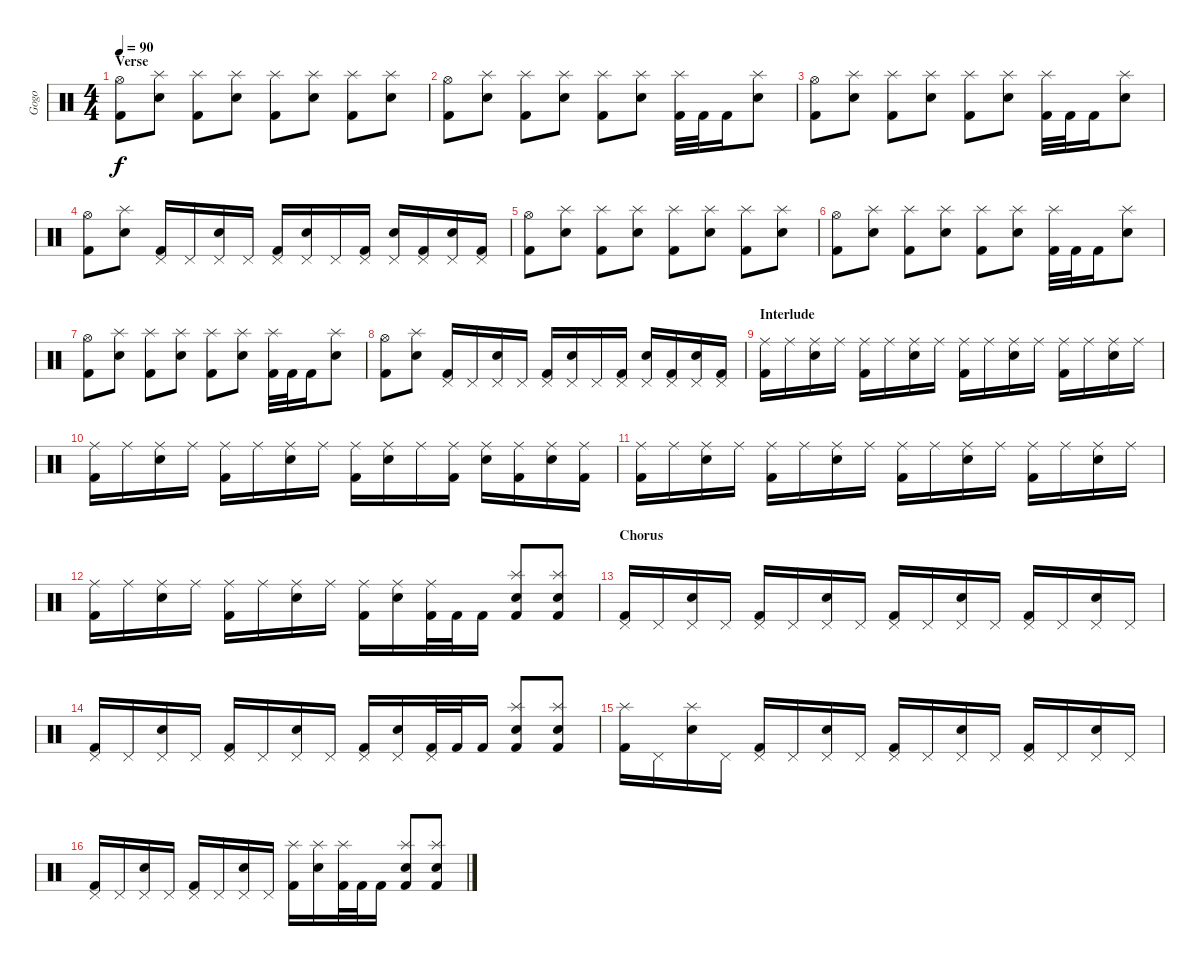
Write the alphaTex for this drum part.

\track ("Gogo" "Gogo") {instrument percussion}
\staff {score}
\articulation defaults
\ts (4 4)
\section ("" "Verse")
\tempo 90
\clef neutral
\ks c
("Hi-Hat (open)" "Kick (hit) 2").8{dy f} ("Splash (hit)" "Electric Snare (hit)").8 ("Splash (hit)" "Kick (hit) 2").8 ("Splash (hit)" "Electric Snare (hit)").8 ("Splash (hit)" "Kick (hit) 2").8 ("Splash (hit)" "Electric Snare (hit)").8 ("Splash (hit)" "Kick (hit) 2").8 ("Splash (hit)" "Electric Snare (hit)").8 |
("Hi-Hat (open)" "Kick (hit) 2").8 ("Splash (hit)" "Electric Snare (hit)").8 ("Splash (hit)" "Kick (hit) 2").8 ("Splash (hit)" "Electric Snare (hit)").8 ("Splash (hit)" "Kick (hit) 2").8 ("Splash (hit)" "Electric Snare (hit)").8 ("Splash (hit)" "Kick (hit) 2").32 "Kick (hit) 2".32 "Kick (hit) 2".16 ("Splash (hit)" "Electric Snare (hit)").8 |
("Hi-Hat (open)" "Kick (hit) 2").8 ("Splash (hit)" "Electric Snare (hit)").8 ("Splash (hit)" "Kick (hit) 2").8 ("Splash (hit)" "Electric Snare (hit)").8 ("Splash (hit)" "Kick (hit) 2").8 ("Splash (hit)" "Electric Snare (hit)").8 ("Splash (hit)" "Kick (hit) 2").32 "Kick (hit) 2".32 "Kick (hit) 2".16 ("Splash (hit)" "Electric Snare (hit)").8 |
("Hi-Hat (open)" "Kick (hit) 2").8 ("Splash (hit)" "Electric Snare (hit)").8 ("Pedal Hi-Hat (hit)" "Kick (hit) 2").16 "Pedal Hi-Hat (hit)".16 ("Pedal Hi-Hat (hit)" "Electric Snare (hit)").16 "Pedal Hi-Hat (hit)".16 ("Pedal Hi-Hat (hit)" "Kick (hit) 2").16 ("Pedal Hi-Hat (hit)" "Electric Snare (hit)").16 "Pedal Hi-Hat (hit)".16 ("Pedal Hi-Hat (hit)" "Kick (hit) 2").16 ("Pedal Hi-Hat (hit)" "Electric Snare (hit)").16 ("Pedal Hi-Hat (hit)" "Kick (hit) 2").16 ("Pedal Hi-Hat (hit)" "Electric Snare (hit)").16 ("Pedal Hi-Hat (hit)" "Kick (hit) 2").16 |
("Hi-Hat (open)" "Kick (hit) 2").8 ("Splash (hit)" "Electric Snare (hit)").8 ("Splash (hit)" "Kick (hit) 2").8 ("Splash (hit)" "Electric Snare (hit)").8 ("Splash (hit)" "Kick (hit) 2").8 ("Splash (hit)" "Electric Snare (hit)").8 ("Splash (hit)" "Kick (hit) 2").8 ("Splash (hit)" "Electric Snare (hit)").8 |
("Hi-Hat (open)" "Kick (hit) 2").8 ("Splash (hit)" "Electric Snare (hit)").8 ("Splash (hit)" "Kick (hit) 2").8 ("Splash (hit)" "Electric Snare (hit)").8 ("Splash (hit)" "Kick (hit) 2").8 ("Splash (hit)" "Electric Snare (hit)").8 ("Splash (hit)" "Kick (hit) 2").32 "Kick (hit) 2".32 "Kick (hit) 2".16 ("Splash (hit)" "Electric Snare (hit)").8 |
("Hi-Hat (open)" "Kick (hit) 2").8 ("Splash (hit)" "Electric Snare (hit)").8 ("Splash (hit)" "Kick (hit) 2").8 ("Splash (hit)" "Electric Snare (hit)").8 ("Splash (hit)" "Kick (hit) 2").8 ("Splash (hit)" "Electric Snare (hit)").8 ("Splash (hit)" "Kick (hit) 2").32 "Kick (hit) 2".32 "Kick (hit) 2".16 ("Splash (hit)" "Electric Snare (hit)").8 |
("Hi-Hat (open)" "Kick (hit) 2").8 ("Splash (hit)" "Electric Snare (hit)").8 ("Pedal Hi-Hat (hit)" "Kick (hit) 2").16 "Pedal Hi-Hat (hit)".16 ("Pedal Hi-Hat (hit)" "Electric Snare (hit)").16 "Pedal Hi-Hat (hit)".16 ("Pedal Hi-Hat (hit)" "Kick (hit) 2").16 ("Pedal Hi-Hat (hit)" "Electric Snare (hit)").16 "Pedal Hi-Hat (hit)".16 ("Pedal Hi-Hat (hit)" "Kick (hit) 2").16 ("Pedal Hi-Hat (hit)" "Electric Snare (hit)").16 ("Pedal Hi-Hat (hit)" "Kick (hit) 2").16 ("Pedal Hi-Hat (hit)" "Electric Snare (hit)").16 ("Pedal Hi-Hat (hit)" "Kick (hit) 2").16 |
\section ("" "Interlude")
("Ride (middle)" "Kick (hit) 2").16 "Ride (middle)".16 ("Ride (middle)" "Electric Snare (hit)").16 "Ride (middle)".16 ("Ride (middle)" "Kick (hit) 2").16 "Ride (middle)".16 ("Ride (middle)" "Electric Snare (hit)").16 "Ride (middle)".16 ("Ride (middle)" "Kick (hit) 2").16 "Ride (middle)".16 ("Ride (middle)" "Electric Snare (hit)").16 "Ride (middle)".16 ("Ride (middle)" "Kick (hit) 2").16 "Ride (middle)".16 ("Ride (middle)" "Electric Snare (hit)").16 "Ride (middle)".16 |
("Ride (middle)" "Kick (hit) 2").16 "Ride (middle)".16 ("Ride (middle)" "Electric Snare (hit)").16 "Ride (middle)".16 ("Ride (middle)" "Kick (hit) 2").16 "Ride (middle)".16 ("Ride (middle)" "Electric Snare (hit)").16 "Ride (middle)".16 ("Ride (middle)" "Kick (hit) 2").16 ("Ride (middle)" "Electric Snare (hit)").16 "Ride (middle)".16 ("Ride (middle)" "Kick (hit) 2").16 ("Ride (middle)" "Electric Snare (hit)").16 ("Ride (middle)" "Kick (hit) 2").16 ("Ride (middle)" "Electric Snare (hit)").16 ("Ride (middle)" "Kick (hit) 2").16 |
("Ride (middle)" "Kick (hit) 2").16 "Ride (middle)".16 ("Ride (middle)" "Electric Snare (hit)").16 "Ride (middle)".16 ("Ride (middle)" "Kick (hit) 2").16 "Ride (middle)".16 ("Ride (middle)" "Electric Snare (hit)").16 "Ride (middle)".16 ("Ride (middle)" "Kick (hit) 2").16 "Ride (middle)".16 ("Ride (middle)" "Electric Snare (hit)").16 "Ride (middle)".16 ("Ride (middle)" "Kick (hit) 2").16 "Ride (middle)".16 ("Ride (middle)" "Electric Snare (hit)").16 "Ride (middle)".16 |
("Ride (middle)" "Kick (hit) 2").16 "Ride (middle)".16 ("Ride (middle)" "Electric Snare (hit)").16 "Ride (middle)".16 ("Ride (middle)" "Kick (hit) 2").16 "Ride (middle)".16 ("Ride (middle)" "Electric Snare (hit)").16 "Ride (middle)".16 ("Ride (middle)" "Kick (hit) 2").16 ("Ride (middle)" "Electric Snare (hit)").16 ("Ride (middle)" "Kick (hit) 2").32 "Kick (hit) 2".32 "Kick (hit) 2".16 ("Splash (hit)" "Electric Snare (hit)" "Kick (hit) 2").8 ("Splash (hit)" "Electric Snare (hit)" "Kick (hit) 2").8 |
\section ("" "Chorus")
("Pedal Hi-Hat (hit)" "Kick (hit) 2").16 "Pedal Hi-Hat (hit)".16 ("Pedal Hi-Hat (hit)" "Electric Snare (hit)").16 "Pedal Hi-Hat (hit)".16 ("Pedal Hi-Hat (hit)" "Kick (hit) 2").16 "Pedal Hi-Hat (hit)".16 ("Pedal Hi-Hat (hit)" "Electric Snare (hit)").16 "Pedal Hi-Hat (hit)".16 ("Pedal Hi-Hat (hit)" "Kick (hit) 2").16 "Pedal Hi-Hat (hit)".16 ("Pedal Hi-Hat (hit)" "Electric Snare (hit)").16 "Pedal Hi-Hat (hit)".16 ("Pedal Hi-Hat (hit)" "Kick (hit) 2").16 "Pedal Hi-Hat (hit)".16 ("Pedal Hi-Hat (hit)" "Electric Snare (hit)").16 "Pedal Hi-Hat (hit)".16 |
("Pedal Hi-Hat (hit)" "Kick (hit) 2").16 "Pedal Hi-Hat (hit)".16 ("Pedal Hi-Hat (hit)" "Electric Snare (hit)").16 "Pedal Hi-Hat (hit)".16 ("Pedal Hi-Hat (hit)" "Kick (hit) 2").16 "Pedal Hi-Hat (hit)".16 ("Pedal Hi-Hat (hit)" "Electric Snare (hit)").16 "Pedal Hi-Hat (hit)".16 ("Pedal Hi-Hat (hit)" "Kick (hit) 2").16 ("Pedal Hi-Hat (hit)" "Electric Snare (hit)").16 ("Pedal Hi-Hat (hit)" "Kick (hit) 2").32 "Kick (hit) 2".32 "Kick (hit) 2".16 ("Splash (hit)" "Electric Snare (hit)" "Kick (hit) 2").8 ("Splash (hit)" "Electric Snare (hit)" "Kick (hit) 2").8 |
("Splash (hit)" "Kick (hit) 2").16 "Pedal Hi-Hat (hit)".16 ("Splash (hit)" "Electric Snare (hit)").16 "Pedal Hi-Hat (hit)".16 ("Pedal Hi-Hat (hit)" "Kick (hit) 2").16 "Pedal Hi-Hat (hit)".16 ("Pedal Hi-Hat (hit)" "Electric Snare (hit)").16 "Pedal Hi-Hat (hit)".16 ("Pedal Hi-Hat (hit)" "Kick (hit) 2").16 "Pedal Hi-Hat (hit)".16 ("Pedal Hi-Hat (hit)" "Electric Snare (hit)").16 "Pedal Hi-Hat (hit)".16 ("Pedal Hi-Hat (hit)" "Kick (hit) 2").16 "Pedal Hi-Hat (hit)".16 ("Pedal Hi-Hat (hit)" "Electric Snare (hit)").16 "Pedal Hi-Hat (hit)".16 |
("Pedal Hi-Hat (hit)" "Kick (hit) 2").16 "Pedal Hi-Hat (hit)".16 ("Pedal Hi-Hat (hit)" "Electric Snare (hit)").16 "Pedal Hi-Hat (hit)".16 ("Pedal Hi-Hat (hit)" "Kick (hit) 2").16 "Pedal Hi-Hat (hit)".16 ("Pedal Hi-Hat (hit)" "Electric Snare (hit)").16 "Pedal Hi-Hat (hit)".16 ("Splash (hit)" "Kick (hit) 2").16 ("Splash (hit)" "Electric Snare (hit)").16 ("Splash (hit)" "Kick (hit) 2").32 "Kick (hit) 2".32 "Kick (hit) 2".16 ("Splash (hit)" "Electric Snare (hit)" "Kick (hit) 2").8 ("Splash (hit)" "Electric Snare (hit)" "Kick (hit) 2").8
